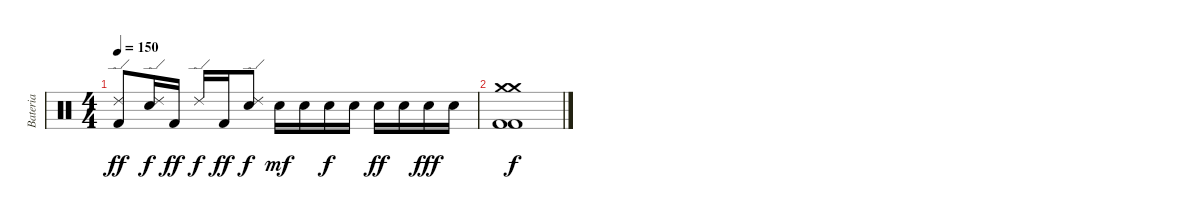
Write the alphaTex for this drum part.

\track ("Bateria" "Bateria") {instrument percussion}
\staff {score}
\articulation defaults
\ts (4 4)
\tempo 150
\clef neutral
\ks c
("Ride (edge) 2" "Kick (hit) 2").8{dy ff} ("Ride (edge) 2" "Snare (hit) 2").16{dy f} "Kick (hit) 2".16{dy ff} "Ride (edge) 2".16{dy f} "Kick (hit) 2".16{dy ff} ("Ride (edge) 2" "Snare (hit) 2").8{dy f} "Snare (hit) 2".16{dy mf} "Snare (hit) 2".16 "Snare (hit) 2".16{dy f} "Snare (hit) 2".16 "Snare (hit) 2".16{dy ff} "Snare (hit) 2".16 "Snare (hit) 2".16{dy fff} "Snare (hit) 2".16 |
("Crash medium (hit)" "Crash medium (hit)" "Kick (hit) 2" "Kick (hit) 2").1{dy f}
